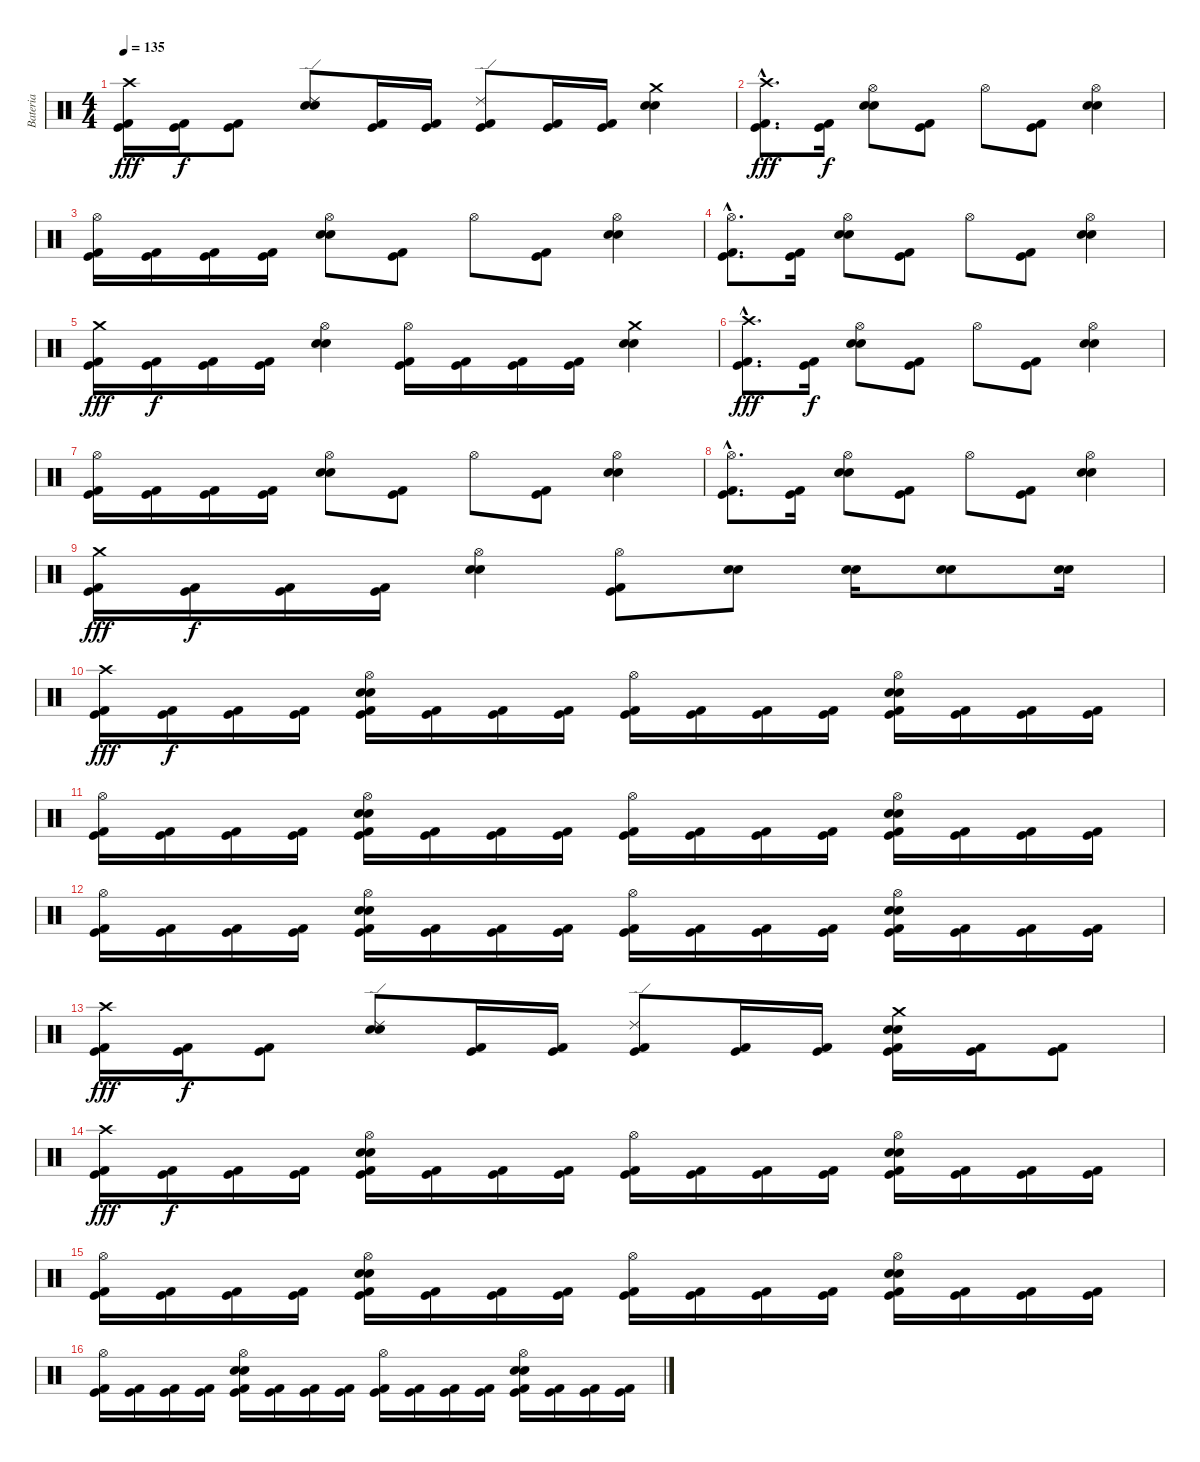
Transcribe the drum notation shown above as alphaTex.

\track ("Bateria" "Bateria") {instrument percussion}
\staff {score}
\articulation defaults
\ts (4 4)
\tempo 135
\clef neutral
\ks c
("Crash high (hit)" "Kick (hit) 2" "Kick (hit)").16{dy fff} ("Kick (hit) 2" "Kick (hit)").16{dy f} ("Kick (hit) 2" "Kick (hit)").8 ("Ride (edge) 2" "Electric Snare (hit)" "Snare (hit) 2").8 ("Kick (hit) 2" "Kick (hit)").16 ("Kick (hit) 2" "Kick (hit)").16 ("Ride (edge) 2" "Kick (hit) 2" "Kick (hit)").8 ("Kick (hit) 2" "Kick (hit)").16 ("Kick (hit) 2" "Kick (hit)").16 ("Crash medium (hit)" "Electric Snare (hit)" "Snare (hit) 2").4 |
("Crash high (hit)"{hac} "Kick (hit) 2"{hac} "Kick (hit)"{hac}).8{d dy fff} ("Kick (hit) 2" "Kick (hit)").16{dy f} ("Hi-Hat (open)" "Electric Snare (hit)" "Snare (hit) 2").8 ("Kick (hit) 2" "Kick (hit)").8 "Hi-Hat (open)".8 ("Kick (hit) 2" "Kick (hit)").8 ("Hi-Hat (open)" "Electric Snare (hit)" "Snare (hit) 2").4 |
("Hi-Hat (open)" "Kick (hit) 2" "Kick (hit)").16 ("Kick (hit) 2" "Kick (hit)").16 ("Kick (hit) 2" "Kick (hit)").16 ("Kick (hit) 2" "Kick (hit)").16 ("Hi-Hat (open)" "Electric Snare (hit)" "Snare (hit) 2").8 ("Kick (hit) 2" "Kick (hit)").8 "Hi-Hat (open)".8 ("Kick (hit) 2" "Kick (hit)").8 ("Hi-Hat (open)" "Electric Snare (hit)" "Snare (hit) 2").4 |
("Hi-Hat (open)"{hac} "Kick (hit) 2"{hac} "Kick (hit)"{hac}).8{d} ("Kick (hit) 2" "Kick (hit)").16 ("Hi-Hat (open)" "Electric Snare (hit)" "Snare (hit) 2").8 ("Kick (hit) 2" "Kick (hit)").8 "Hi-Hat (open)".8 ("Kick (hit) 2" "Kick (hit)").8 ("Hi-Hat (open)" "Electric Snare (hit)" "Snare (hit) 2").4 |
("Crash medium (hit)" "Kick (hit) 2" "Kick (hit)").16{dy fff} ("Kick (hit) 2" "Kick (hit)").16{dy f} ("Kick (hit) 2" "Kick (hit)").16 ("Kick (hit) 2" "Kick (hit)").16 ("Hi-Hat (open)" "Electric Snare (hit)" "Snare (hit) 2").4 ("Hi-Hat (open)" "Kick (hit) 2" "Kick (hit)").16 ("Kick (hit) 2" "Kick (hit)").16 ("Kick (hit) 2" "Kick (hit)").16 ("Kick (hit) 2" "Kick (hit)").16 ("Crash medium (hit)" "Electric Snare (hit)" "Snare (hit) 2").4 |
("Crash high (hit)"{hac} "Kick (hit) 2"{hac} "Kick (hit)"{hac}).8{d dy fff} ("Kick (hit) 2" "Kick (hit)").16{dy f} ("Hi-Hat (open)" "Electric Snare (hit)" "Snare (hit) 2").8 ("Kick (hit) 2" "Kick (hit)").8 "Hi-Hat (open)".8 ("Kick (hit) 2" "Kick (hit)").8 ("Hi-Hat (open)" "Electric Snare (hit)" "Snare (hit) 2").4 |
("Hi-Hat (open)" "Kick (hit) 2" "Kick (hit)").16 ("Kick (hit) 2" "Kick (hit)").16 ("Kick (hit) 2" "Kick (hit)").16 ("Kick (hit) 2" "Kick (hit)").16 ("Hi-Hat (open)" "Electric Snare (hit)" "Snare (hit) 2").8 ("Kick (hit) 2" "Kick (hit)").8 "Hi-Hat (open)".8 ("Kick (hit) 2" "Kick (hit)").8 ("Hi-Hat (open)" "Electric Snare (hit)" "Snare (hit) 2").4 |
("Hi-Hat (open)"{hac} "Kick (hit) 2"{hac} "Kick (hit)"{hac}).8{d} ("Kick (hit) 2" "Kick (hit)").16 ("Hi-Hat (open)" "Electric Snare (hit)" "Snare (hit) 2").8 ("Kick (hit) 2" "Kick (hit)").8 "Hi-Hat (open)".8 ("Kick (hit) 2" "Kick (hit)").8 ("Hi-Hat (open)" "Electric Snare (hit)" "Snare (hit) 2").4 |
("Crash medium (hit)" "Kick (hit) 2" "Kick (hit)").16{dy fff} ("Kick (hit) 2" "Kick (hit)").16{dy f} ("Kick (hit) 2" "Kick (hit)").16 ("Kick (hit) 2" "Kick (hit)").16 ("Hi-Hat (open)" "Electric Snare (hit)" "Snare (hit) 2").4 ("Hi-Hat (open)" "Kick (hit) 2" "Kick (hit)").8 ("Electric Snare (hit)" "Snare (hit) 2").8 ("Electric Snare (hit)" "Snare (hit) 2").16 ("Electric Snare (hit)" "Snare (hit) 2").8 ("Electric Snare (hit)" "Snare (hit) 2").16 |
("Crash high (hit)" "Kick (hit) 2" "Kick (hit)").16{dy fff} ("Kick (hit) 2" "Kick (hit)").16{dy f} ("Kick (hit) 2" "Kick (hit)").16 ("Kick (hit) 2" "Kick (hit)").16 ("Hi-Hat (open)" "Electric Snare (hit)" "Snare (hit) 2" "Kick (hit) 2" "Kick (hit)").16 ("Kick (hit) 2" "Kick (hit)").16 ("Kick (hit) 2" "Kick (hit)").16 ("Kick (hit) 2" "Kick (hit)").16 ("Hi-Hat (open)" "Kick (hit) 2" "Kick (hit)").16 ("Kick (hit) 2" "Kick (hit)").16 ("Kick (hit) 2" "Kick (hit)").16 ("Kick (hit) 2" "Kick (hit)").16 ("Hi-Hat (open)" "Electric Snare (hit)" "Snare (hit) 2" "Kick (hit) 2" "Kick (hit)").16 ("Kick (hit) 2" "Kick (hit)").16 ("Kick (hit) 2" "Kick (hit)").16 ("Kick (hit) 2" "Kick (hit)").16 |
("Hi-Hat (open)" "Kick (hit) 2" "Kick (hit)").16 ("Kick (hit) 2" "Kick (hit)").16 ("Kick (hit) 2" "Kick (hit)").16 ("Kick (hit) 2" "Kick (hit)").16 ("Hi-Hat (open)" "Electric Snare (hit)" "Snare (hit) 2" "Kick (hit) 2" "Kick (hit)").16 ("Kick (hit) 2" "Kick (hit)").16 ("Kick (hit) 2" "Kick (hit)").16 ("Kick (hit) 2" "Kick (hit)").16 ("Hi-Hat (open)" "Kick (hit) 2" "Kick (hit)").16 ("Kick (hit) 2" "Kick (hit)").16 ("Kick (hit) 2" "Kick (hit)").16 ("Kick (hit) 2" "Kick (hit)").16 ("Hi-Hat (open)" "Electric Snare (hit)" "Snare (hit) 2" "Kick (hit) 2" "Kick (hit)").16 ("Kick (hit) 2" "Kick (hit)").16 ("Kick (hit) 2" "Kick (hit)").16 ("Kick (hit) 2" "Kick (hit)").16 |
("Hi-Hat (open)" "Kick (hit) 2" "Kick (hit)").16 ("Kick (hit) 2" "Kick (hit)").16 ("Kick (hit) 2" "Kick (hit)").16 ("Kick (hit) 2" "Kick (hit)").16 ("Hi-Hat (open)" "Electric Snare (hit)" "Snare (hit) 2" "Kick (hit) 2" "Kick (hit)").16 ("Kick (hit) 2" "Kick (hit)").16 ("Kick (hit) 2" "Kick (hit)").16 ("Kick (hit) 2" "Kick (hit)").16 ("Hi-Hat (open)" "Kick (hit) 2" "Kick (hit)").16 ("Kick (hit) 2" "Kick (hit)").16 ("Kick (hit) 2" "Kick (hit)").16 ("Kick (hit) 2" "Kick (hit)").16 ("Hi-Hat (open)" "Electric Snare (hit)" "Snare (hit) 2" "Kick (hit) 2" "Kick (hit)").16 ("Kick (hit) 2" "Kick (hit)").16 ("Kick (hit) 2" "Kick (hit)").16 ("Kick (hit) 2" "Kick (hit)").16 |
("Crash high (hit)" "Kick (hit) 2" "Kick (hit)").16{dy fff} ("Kick (hit) 2" "Kick (hit)").16{dy f} ("Kick (hit) 2" "Kick (hit)").8 ("Ride (edge) 2" "Electric Snare (hit)" "Snare (hit) 2").8 ("Kick (hit) 2" "Kick (hit)").16 ("Kick (hit) 2" "Kick (hit)").16 ("Ride (edge) 2" "Kick (hit) 2" "Kick (hit)").8 ("Kick (hit) 2" "Kick (hit)").16 ("Kick (hit) 2" "Kick (hit)").16 ("Crash medium (hit)" "Electric Snare (hit)" "Snare (hit) 2" "Kick (hit) 2" "Kick (hit)").16 ("Kick (hit) 2" "Kick (hit)").16 ("Kick (hit) 2" "Kick (hit)").8 |
("Crash high (hit)" "Kick (hit) 2" "Kick (hit)").16{dy fff} ("Kick (hit) 2" "Kick (hit)").16{dy f} ("Kick (hit) 2" "Kick (hit)").16 ("Kick (hit) 2" "Kick (hit)").16 ("Hi-Hat (open)" "Electric Snare (hit)" "Snare (hit) 2" "Kick (hit) 2" "Kick (hit)").16 ("Kick (hit) 2" "Kick (hit)").16 ("Kick (hit) 2" "Kick (hit)").16 ("Kick (hit) 2" "Kick (hit)").16 ("Hi-Hat (open)" "Kick (hit) 2" "Kick (hit)").16 ("Kick (hit) 2" "Kick (hit)").16 ("Kick (hit) 2" "Kick (hit)").16 ("Kick (hit) 2" "Kick (hit)").16 ("Hi-Hat (open)" "Electric Snare (hit)" "Snare (hit) 2" "Kick (hit) 2" "Kick (hit)").16 ("Kick (hit) 2" "Kick (hit)").16 ("Kick (hit) 2" "Kick (hit)").16 ("Kick (hit) 2" "Kick (hit)").16 |
("Hi-Hat (open)" "Kick (hit) 2" "Kick (hit)").16 ("Kick (hit) 2" "Kick (hit)").16 ("Kick (hit) 2" "Kick (hit)").16 ("Kick (hit) 2" "Kick (hit)").16 ("Hi-Hat (open)" "Electric Snare (hit)" "Snare (hit) 2" "Kick (hit) 2" "Kick (hit)").16 ("Kick (hit) 2" "Kick (hit)").16 ("Kick (hit) 2" "Kick (hit)").16 ("Kick (hit) 2" "Kick (hit)").16 ("Hi-Hat (open)" "Kick (hit) 2" "Kick (hit)").16 ("Kick (hit) 2" "Kick (hit)").16 ("Kick (hit) 2" "Kick (hit)").16 ("Kick (hit) 2" "Kick (hit)").16 ("Hi-Hat (open)" "Electric Snare (hit)" "Snare (hit) 2" "Kick (hit) 2" "Kick (hit)").16 ("Kick (hit) 2" "Kick (hit)").16 ("Kick (hit) 2" "Kick (hit)").16 ("Kick (hit) 2" "Kick (hit)").16 |
("Hi-Hat (open)" "Kick (hit) 2" "Kick (hit)").16 ("Kick (hit) 2" "Kick (hit)").16 ("Kick (hit) 2" "Kick (hit)").16 ("Kick (hit) 2" "Kick (hit)").16 ("Hi-Hat (open)" "Electric Snare (hit)" "Snare (hit) 2" "Kick (hit) 2" "Kick (hit)").16 ("Kick (hit) 2" "Kick (hit)").16 ("Kick (hit) 2" "Kick (hit)").16 ("Kick (hit) 2" "Kick (hit)").16 ("Hi-Hat (open)" "Kick (hit) 2" "Kick (hit)").16 ("Kick (hit) 2" "Kick (hit)").16 ("Kick (hit) 2" "Kick (hit)").16 ("Kick (hit) 2" "Kick (hit)").16 ("Hi-Hat (open)" "Electric Snare (hit)" "Snare (hit) 2" "Kick (hit) 2" "Kick (hit)").16 ("Kick (hit) 2" "Kick (hit)").16 ("Kick (hit) 2" "Kick (hit)").16 ("Kick (hit) 2" "Kick (hit)").16
